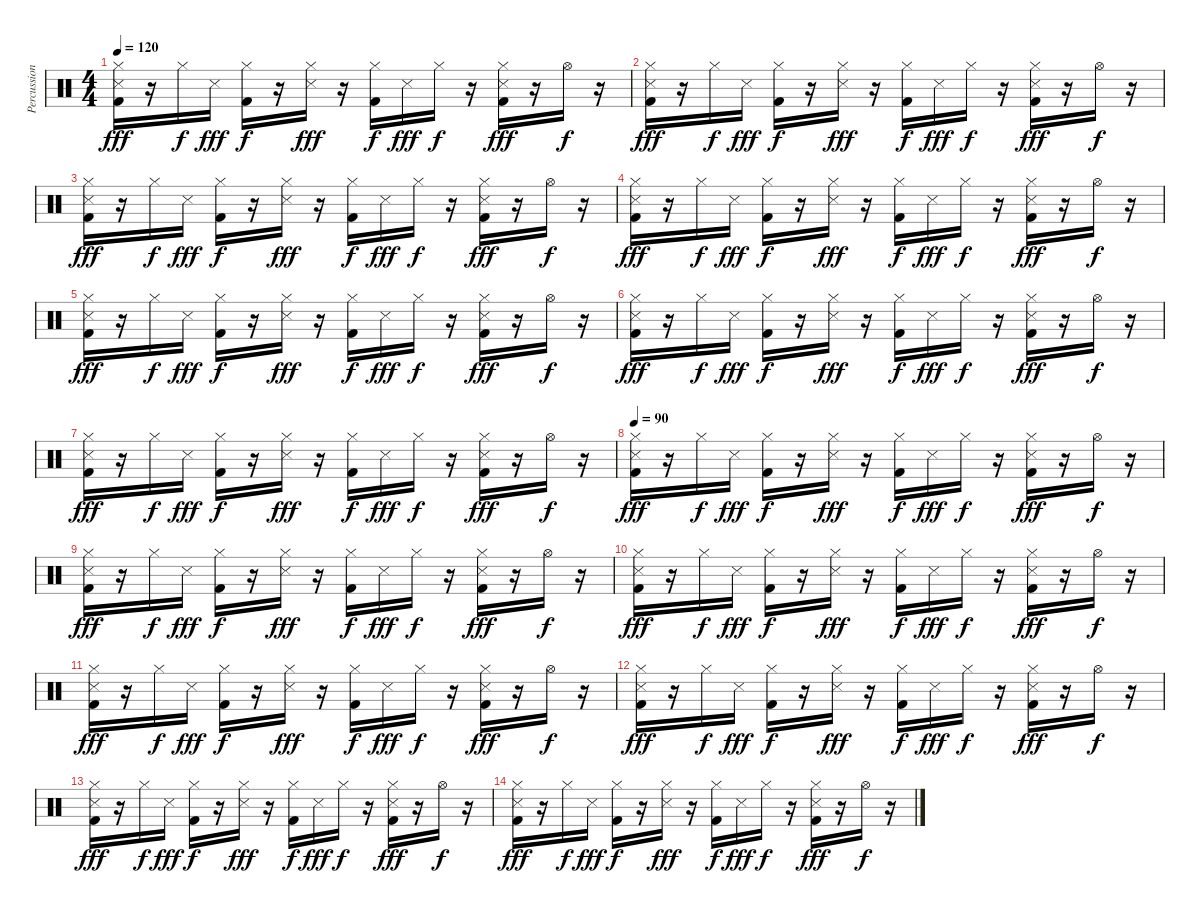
\track ("Percussions" "Percussion") {instrument percussion}
\staff {score}
\articulation defaults
\ts (4 4)
\tempo 120
\clef neutral
\ks c
("Hi-Hat (closed)" "Snare (side stick) 3" "Kick (hit) 2").16{dy fff} r.16 "Hi-Hat (closed)".16{dy f} "Snare (side stick) 3".16{dy fff} ("Hi-Hat (closed)" "Kick (hit) 2").16{dy f} r.16 ("Hi-Hat (closed)" "Snare (side stick) 3").16{dy fff} r.16 ("Hi-Hat (closed)" "Kick (hit) 2").16{dy f} "Snare (side stick) 3".16{dy fff} "Hi-Hat (closed)".16{dy f} r.16 ("Hi-Hat (closed)" "Snare (side stick) 3" "Kick (hit) 2").16{dy fff} r.16 "Hi-Hat (open)".16{dy f} r.16 |
("Hi-Hat (closed)" "Snare (side stick) 3" "Kick (hit) 2").16{dy fff} r.16 "Hi-Hat (closed)".16{dy f} "Snare (side stick) 3".16{dy fff} ("Hi-Hat (closed)" "Kick (hit) 2").16{dy f} r.16 ("Hi-Hat (closed)" "Snare (side stick) 3").16{dy fff} r.16 ("Hi-Hat (closed)" "Kick (hit) 2").16{dy f} "Snare (side stick) 3".16{dy fff} "Hi-Hat (closed)".16{dy f} r.16 ("Hi-Hat (closed)" "Snare (side stick) 3" "Kick (hit) 2").16{dy fff} r.16 "Hi-Hat (open)".16{dy f} r.16 |
("Hi-Hat (closed)" "Snare (side stick) 3" "Kick (hit) 2").16{dy fff} r.16 "Hi-Hat (closed)".16{dy f} "Snare (side stick) 3".16{dy fff} ("Hi-Hat (closed)" "Kick (hit) 2").16{dy f} r.16 ("Hi-Hat (closed)" "Snare (side stick) 3").16{dy fff} r.16 ("Hi-Hat (closed)" "Kick (hit) 2").16{dy f} "Snare (side stick) 3".16{dy fff} "Hi-Hat (closed)".16{dy f} r.16 ("Hi-Hat (closed)" "Snare (side stick) 3" "Kick (hit) 2").16{dy fff} r.16 "Hi-Hat (open)".16{dy f} r.16 |
("Hi-Hat (closed)" "Snare (side stick) 3" "Kick (hit) 2").16{dy fff} r.16 "Hi-Hat (closed)".16{dy f} "Snare (side stick) 3".16{dy fff} ("Hi-Hat (closed)" "Kick (hit) 2").16{dy f} r.16 ("Hi-Hat (closed)" "Snare (side stick) 3").16{dy fff} r.16 ("Hi-Hat (closed)" "Kick (hit) 2").16{dy f} "Snare (side stick) 3".16{dy fff} "Hi-Hat (closed)".16{dy f} r.16 ("Hi-Hat (closed)" "Snare (side stick) 3" "Kick (hit) 2").16{dy fff} r.16 "Hi-Hat (open)".16{dy f} r.16 |
("Hi-Hat (closed)" "Snare (side stick) 3" "Kick (hit) 2").16{dy fff} r.16 "Hi-Hat (closed)".16{dy f} "Snare (side stick) 3".16{dy fff} ("Hi-Hat (closed)" "Kick (hit) 2").16{dy f} r.16 ("Hi-Hat (closed)" "Snare (side stick) 3").16{dy fff} r.16 ("Hi-Hat (closed)" "Kick (hit) 2").16{dy f} "Snare (side stick) 3".16{dy fff} "Hi-Hat (closed)".16{dy f} r.16 ("Hi-Hat (closed)" "Snare (side stick) 3" "Kick (hit) 2").16{dy fff} r.16 "Hi-Hat (open)".16{dy f} r.16 |
("Hi-Hat (closed)" "Snare (side stick) 3" "Kick (hit) 2").16{dy fff} r.16 "Hi-Hat (closed)".16{dy f} "Snare (side stick) 3".16{dy fff} ("Hi-Hat (closed)" "Kick (hit) 2").16{dy f} r.16 ("Hi-Hat (closed)" "Snare (side stick) 3").16{dy fff} r.16 ("Hi-Hat (closed)" "Kick (hit) 2").16{dy f} "Snare (side stick) 3".16{dy fff} "Hi-Hat (closed)".16{dy f} r.16 ("Hi-Hat (closed)" "Snare (side stick) 3" "Kick (hit) 2").16{dy fff} r.16 "Hi-Hat (open)".16{dy f} r.16 |
("Hi-Hat (closed)" "Snare (side stick) 3" "Kick (hit) 2").16{dy fff} r.16 "Hi-Hat (closed)".16{dy f} "Snare (side stick) 3".16{dy fff} ("Hi-Hat (closed)" "Kick (hit) 2").16{dy f} r.16 ("Hi-Hat (closed)" "Snare (side stick) 3").16{dy fff} r.16 ("Hi-Hat (closed)" "Kick (hit) 2").16{dy f} "Snare (side stick) 3".16{dy fff} "Hi-Hat (closed)".16{dy f} r.16 ("Hi-Hat (closed)" "Snare (side stick) 3" "Kick (hit) 2").16{dy fff} r.16 "Hi-Hat (open)".16{dy f} r.16 |
\tempo 90
("Hi-Hat (closed)" "Snare (side stick) 3" "Kick (hit) 2").16{dy fff} r.16 "Hi-Hat (closed)".16{dy f} "Snare (side stick) 3".16{dy fff} ("Hi-Hat (closed)" "Kick (hit) 2").16{dy f} r.16 ("Hi-Hat (closed)" "Snare (side stick) 3").16{dy fff} r.16 ("Hi-Hat (closed)" "Kick (hit) 2").16{dy f} "Snare (side stick) 3".16{dy fff} "Hi-Hat (closed)".16{dy f} r.16 ("Hi-Hat (closed)" "Snare (side stick) 3" "Kick (hit) 2").16{dy fff} r.16 "Hi-Hat (open)".16{dy f} r.16 |
("Hi-Hat (closed)" "Snare (side stick) 3" "Kick (hit) 2").16{dy fff} r.16 "Hi-Hat (closed)".16{dy f} "Snare (side stick) 3".16{dy fff} ("Hi-Hat (closed)" "Kick (hit) 2").16{dy f} r.16 ("Hi-Hat (closed)" "Snare (side stick) 3").16{dy fff} r.16 ("Hi-Hat (closed)" "Kick (hit) 2").16{dy f} "Snare (side stick) 3".16{dy fff} "Hi-Hat (closed)".16{dy f} r.16 ("Hi-Hat (closed)" "Snare (side stick) 3" "Kick (hit) 2").16{dy fff} r.16 "Hi-Hat (open)".16{dy f} r.16 |
("Hi-Hat (closed)" "Snare (side stick) 3" "Kick (hit) 2").16{dy fff} r.16 "Hi-Hat (closed)".16{dy f} "Snare (side stick) 3".16{dy fff} ("Hi-Hat (closed)" "Kick (hit) 2").16{dy f} r.16 ("Hi-Hat (closed)" "Snare (side stick) 3").16{dy fff} r.16 ("Hi-Hat (closed)" "Kick (hit) 2").16{dy f} "Snare (side stick) 3".16{dy fff} "Hi-Hat (closed)".16{dy f} r.16 ("Hi-Hat (closed)" "Snare (side stick) 3" "Kick (hit) 2").16{dy fff} r.16 "Hi-Hat (open)".16{dy f} r.16 |
("Hi-Hat (closed)" "Snare (side stick) 3" "Kick (hit) 2").16{dy fff} r.16 "Hi-Hat (closed)".16{dy f} "Snare (side stick) 3".16{dy fff} ("Hi-Hat (closed)" "Kick (hit) 2").16{dy f} r.16 ("Hi-Hat (closed)" "Snare (side stick) 3").16{dy fff} r.16 ("Hi-Hat (closed)" "Kick (hit) 2").16{dy f} "Snare (side stick) 3".16{dy fff} "Hi-Hat (closed)".16{dy f} r.16 ("Hi-Hat (closed)" "Snare (side stick) 3" "Kick (hit) 2").16{dy fff} r.16 "Hi-Hat (open)".16{dy f} r.16 |
("Hi-Hat (closed)" "Snare (side stick) 3" "Kick (hit) 2").16{dy fff} r.16 "Hi-Hat (closed)".16{dy f} "Snare (side stick) 3".16{dy fff} ("Hi-Hat (closed)" "Kick (hit) 2").16{dy f} r.16 ("Hi-Hat (closed)" "Snare (side stick) 3").16{dy fff} r.16 ("Hi-Hat (closed)" "Kick (hit) 2").16{dy f} "Snare (side stick) 3".16{dy fff} "Hi-Hat (closed)".16{dy f} r.16 ("Hi-Hat (closed)" "Snare (side stick) 3" "Kick (hit) 2").16{dy fff} r.16 "Hi-Hat (open)".16{dy f} r.16 |
("Hi-Hat (closed)" "Snare (side stick) 3" "Kick (hit) 2").16{dy fff} r.16 "Hi-Hat (closed)".16{dy f} "Snare (side stick) 3".16{dy fff} ("Hi-Hat (closed)" "Kick (hit) 2").16{dy f} r.16 ("Hi-Hat (closed)" "Snare (side stick) 3").16{dy fff} r.16 ("Hi-Hat (closed)" "Kick (hit) 2").16{dy f} "Snare (side stick) 3".16{dy fff} "Hi-Hat (closed)".16{dy f} r.16 ("Hi-Hat (closed)" "Snare (side stick) 3" "Kick (hit) 2").16{dy fff} r.16 "Hi-Hat (open)".16{dy f} r.16 |
("Hi-Hat (closed)" "Snare (side stick) 3" "Kick (hit) 2").16{dy fff} r.16 "Hi-Hat (closed)".16{dy f} "Snare (side stick) 3".16{dy fff} ("Hi-Hat (closed)" "Kick (hit) 2").16{dy f} r.16 ("Hi-Hat (closed)" "Snare (side stick) 3").16{dy fff} r.16 ("Hi-Hat (closed)" "Kick (hit) 2").16{dy f} "Snare (side stick) 3".16{dy fff} "Hi-Hat (closed)".16{dy f} r.16 ("Hi-Hat (closed)" "Snare (side stick) 3" "Kick (hit) 2").16{dy fff} r.16 "Hi-Hat (open)".16{dy f} r.16
